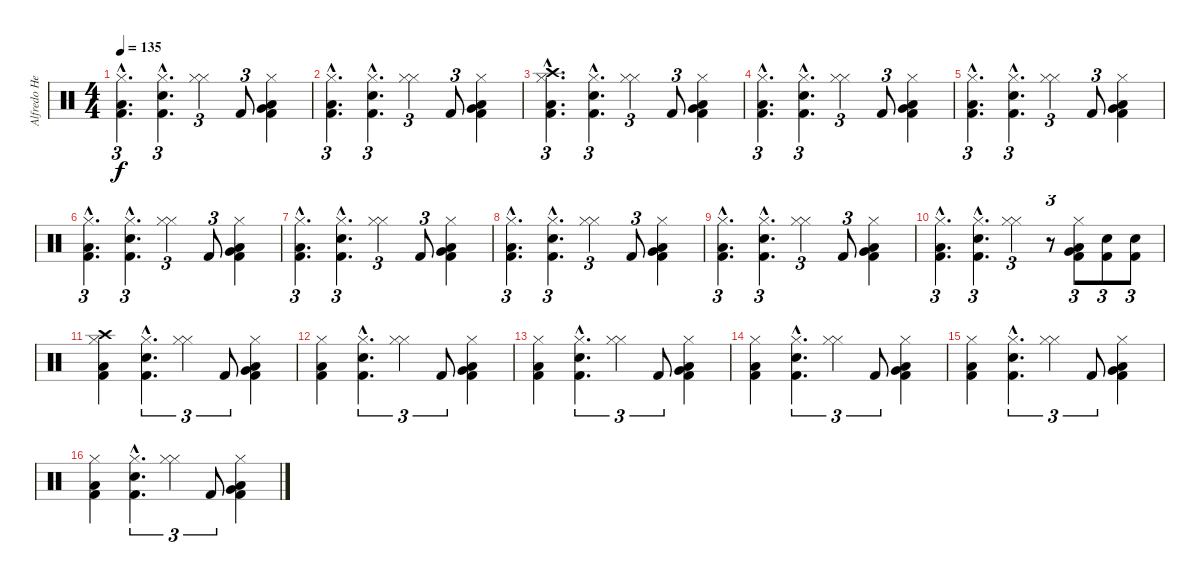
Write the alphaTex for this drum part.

\track ("Alfredo Hernandez" "Alfredo He") {instrument percussion}
\staff {score}
\articulation defaults
\ts (4 4)
\tempo 135
\clef neutral
\ks c
("Hi-Hat (closed)"{hac} "Low Floor Tom (hit)"{hac} "Kick (hit) 2"{hac}).4{d tu (3 2) dy f} ("Electric Snare (hit)"{hac} "Hi-Hat (closed)"{hac} "Kick (hit) 2"{hac}).4{d tu (3 2)} ("Hi-Hat (closed)" "Hi-Hat (closed)").4{tu (3 2)} "Kick (hit) 2".8{tu (3 2)} ("Hi-Hat (closed)" "Very Low Tom (hit)" "Low Floor Tom (hit)" "Kick (hit) 2").4 |
("Hi-Hat (closed)"{hac} "Low Floor Tom (hit)"{hac} "Kick (hit) 2"{hac}).4{d tu (3 2)} ("Electric Snare (hit)"{hac} "Hi-Hat (closed)"{hac} "Kick (hit) 2"{hac}).4{d tu (3 2)} ("Hi-Hat (closed)" "Hi-Hat (closed)").4{tu (3 2)} "Kick (hit) 2".8{tu (3 2)} ("Hi-Hat (closed)" "Very Low Tom (hit)" "Low Floor Tom (hit)" "Kick (hit) 2").4 |
("Hi-Hat (closed)"{hac} "Crash high (hit)"{hac} "Low Floor Tom (hit)"{hac} "Kick (hit) 2"{hac}).4{d tu (3 2)} ("Electric Snare (hit)"{hac} "Hi-Hat (closed)"{hac} "Kick (hit) 2"{hac}).4{d tu (3 2)} ("Hi-Hat (closed)" "Hi-Hat (closed)").4{tu (3 2)} "Kick (hit) 2".8{tu (3 2)} ("Hi-Hat (closed)" "Very Low Tom (hit)" "Low Floor Tom (hit)" "Kick (hit) 2").4 |
("Hi-Hat (closed)"{hac} "Low Floor Tom (hit)"{hac} "Kick (hit) 2"{hac}).4{d tu (3 2)} ("Electric Snare (hit)"{hac} "Hi-Hat (closed)"{hac} "Kick (hit) 2"{hac}).4{d tu (3 2)} ("Hi-Hat (closed)" "Hi-Hat (closed)").4{tu (3 2)} "Kick (hit) 2".8{tu (3 2)} ("Hi-Hat (closed)" "Very Low Tom (hit)" "Low Floor Tom (hit)" "Kick (hit) 2").4 |
("Hi-Hat (closed)"{hac} "Low Floor Tom (hit)"{hac} "Kick (hit) 2"{hac}).4{d tu (3 2)} ("Electric Snare (hit)"{hac} "Hi-Hat (closed)"{hac} "Kick (hit) 2"{hac}).4{d tu (3 2)} ("Hi-Hat (closed)" "Hi-Hat (closed)").4{tu (3 2)} "Kick (hit) 2".8{tu (3 2)} ("Hi-Hat (closed)" "Very Low Tom (hit)" "Low Floor Tom (hit)" "Kick (hit) 2").4 |
("Hi-Hat (closed)"{hac} "Low Floor Tom (hit)"{hac} "Kick (hit) 2"{hac}).4{d tu (3 2)} ("Electric Snare (hit)"{hac} "Hi-Hat (closed)"{hac} "Kick (hit) 2"{hac}).4{d tu (3 2)} ("Hi-Hat (closed)" "Hi-Hat (closed)").4{tu (3 2)} "Kick (hit) 2".8{tu (3 2)} ("Hi-Hat (closed)" "Very Low Tom (hit)" "Low Floor Tom (hit)" "Kick (hit) 2").4 |
("Hi-Hat (closed)"{hac} "Low Floor Tom (hit)"{hac} "Kick (hit) 2"{hac}).4{d tu (3 2)} ("Electric Snare (hit)"{hac} "Hi-Hat (closed)"{hac} "Kick (hit) 2"{hac}).4{d tu (3 2)} ("Hi-Hat (closed)" "Hi-Hat (closed)").4{tu (3 2)} "Kick (hit) 2".8{tu (3 2)} ("Hi-Hat (closed)" "Very Low Tom (hit)" "Low Floor Tom (hit)" "Kick (hit) 2").4 |
("Hi-Hat (closed)"{hac} "Low Floor Tom (hit)"{hac} "Kick (hit) 2"{hac}).4{d tu (3 2)} ("Electric Snare (hit)"{hac} "Hi-Hat (closed)"{hac} "Kick (hit) 2"{hac}).4{d tu (3 2)} ("Hi-Hat (closed)" "Hi-Hat (closed)").4{tu (3 2)} "Kick (hit) 2".8{tu (3 2)} ("Hi-Hat (closed)" "Very Low Tom (hit)" "Low Floor Tom (hit)" "Kick (hit) 2").4 |
("Hi-Hat (closed)"{hac} "Low Floor Tom (hit)"{hac} "Kick (hit) 2"{hac}).4{d tu (3 2)} ("Electric Snare (hit)"{hac} "Hi-Hat (closed)"{hac} "Kick (hit) 2"{hac}).4{d tu (3 2)} ("Hi-Hat (closed)" "Hi-Hat (closed)").4{tu (3 2)} "Kick (hit) 2".8{tu (3 2)} ("Hi-Hat (closed)" "Very Low Tom (hit)" "Low Floor Tom (hit)" "Kick (hit) 2").4 |
("Hi-Hat (closed)"{hac} "Low Floor Tom (hit)"{hac} "Kick (hit) 2"{hac}).4{d tu (3 2)} ("Electric Snare (hit)"{hac} "Hi-Hat (closed)"{hac} "Kick (hit) 2"{hac}).4{d tu (3 2)} ("Hi-Hat (closed)" "Hi-Hat (closed)").4{tu (3 2)} r.8{tu (3 2)} ("Hi-Hat (closed)" "Very Low Tom (hit)" "Low Floor Tom (hit)" "Kick (hit) 2").8{tu (3 2)} ("Electric Snare (hit)" "Kick (hit) 2").8{tu (3 2)} ("Electric Snare (hit)" "Kick (hit) 2").8{tu (3 2)} |
("Hi-Hat (closed)" "Crash high (hit)" "Low Floor Tom (hit)" "Kick (hit) 2").4 ("Electric Snare (hit)"{hac} "Hi-Hat (closed)"{hac} "Kick (hit) 2"{hac}).4{d tu (3 2)} ("Hi-Hat (closed)" "Hi-Hat (closed)").4{tu (3 2)} "Kick (hit) 2".8{tu (3 2)} ("Hi-Hat (closed)" "Very Low Tom (hit)" "Low Floor Tom (hit)" "Kick (hit) 2").4 |
("Hi-Hat (closed)" "Low Floor Tom (hit)" "Kick (hit) 2").4 ("Electric Snare (hit)"{hac} "Hi-Hat (closed)"{hac} "Kick (hit) 2"{hac}).4{d tu (3 2)} ("Hi-Hat (closed)" "Hi-Hat (closed)").4{tu (3 2)} "Kick (hit) 2".8{tu (3 2)} ("Hi-Hat (closed)" "Very Low Tom (hit)" "Low Floor Tom (hit)" "Kick (hit) 2").4 |
("Hi-Hat (closed)" "Low Floor Tom (hit)" "Kick (hit) 2").4 ("Electric Snare (hit)"{hac} "Hi-Hat (closed)"{hac} "Kick (hit) 2"{hac}).4{d tu (3 2)} ("Hi-Hat (closed)" "Hi-Hat (closed)").4{tu (3 2)} "Kick (hit) 2".8{tu (3 2)} ("Hi-Hat (closed)" "Very Low Tom (hit)" "Low Floor Tom (hit)" "Kick (hit) 2").4 |
("Hi-Hat (closed)" "Low Floor Tom (hit)" "Kick (hit) 2").4 ("Electric Snare (hit)"{hac} "Hi-Hat (closed)"{hac} "Kick (hit) 2"{hac}).4{d tu (3 2)} ("Hi-Hat (closed)" "Hi-Hat (closed)").4{tu (3 2)} "Kick (hit) 2".8{tu (3 2)} ("Hi-Hat (closed)" "Very Low Tom (hit)" "Low Floor Tom (hit)" "Kick (hit) 2").4 |
("Hi-Hat (closed)" "Low Floor Tom (hit)" "Kick (hit) 2").4 ("Electric Snare (hit)"{hac} "Hi-Hat (closed)"{hac} "Kick (hit) 2"{hac}).4{d tu (3 2)} ("Hi-Hat (closed)" "Hi-Hat (closed)").4{tu (3 2)} "Kick (hit) 2".8{tu (3 2)} ("Hi-Hat (closed)" "Very Low Tom (hit)" "Low Floor Tom (hit)" "Kick (hit) 2").4 |
("Hi-Hat (closed)" "Low Floor Tom (hit)" "Kick (hit) 2").4 ("Electric Snare (hit)"{hac} "Hi-Hat (closed)"{hac} "Kick (hit) 2"{hac}).4{d tu (3 2)} ("Hi-Hat (closed)" "Hi-Hat (closed)").4{tu (3 2)} "Kick (hit) 2".8{tu (3 2)} ("Hi-Hat (closed)" "Very Low Tom (hit)" "Low Floor Tom (hit)" "Kick (hit) 2").4
